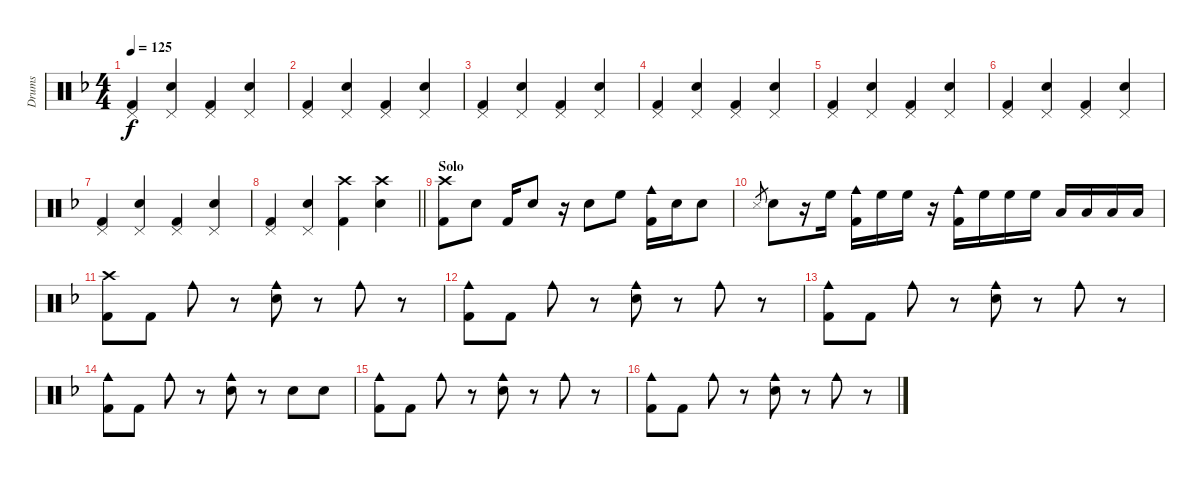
\track ("Drums" "Drums") {instrument percussion}
\staff {score}
\articulation defaults
\ts (4 4)
\tempo 125
\clef neutral
\ks f
("Pedal Hi-Hat (hit)" "Kick (hit) 2").4{dy f} ("Pedal Hi-Hat (hit)" "Electric Snare (hit)").4 ("Pedal Hi-Hat (hit)" "Kick (hit) 2").4 ("Pedal Hi-Hat (hit)" "Electric Snare (hit)").4 |
("Pedal Hi-Hat (hit)" "Kick (hit) 2").4 ("Pedal Hi-Hat (hit)" "Electric Snare (hit)").4 ("Pedal Hi-Hat (hit)" "Kick (hit) 2").4 ("Pedal Hi-Hat (hit)" "Electric Snare (hit)").4 |
("Pedal Hi-Hat (hit)" "Kick (hit) 2").4 ("Pedal Hi-Hat (hit)" "Electric Snare (hit)").4 ("Pedal Hi-Hat (hit)" "Kick (hit) 2").4 ("Pedal Hi-Hat (hit)" "Electric Snare (hit)").4 |
("Pedal Hi-Hat (hit)" "Kick (hit) 2").4 ("Pedal Hi-Hat (hit)" "Electric Snare (hit)").4 ("Pedal Hi-Hat (hit)" "Kick (hit) 2").4 ("Pedal Hi-Hat (hit)" "Electric Snare (hit)").4 |
("Pedal Hi-Hat (hit)" "Kick (hit) 2").4 ("Pedal Hi-Hat (hit)" "Electric Snare (hit)").4 ("Pedal Hi-Hat (hit)" "Kick (hit) 2").4 ("Pedal Hi-Hat (hit)" "Electric Snare (hit)").4 |
("Pedal Hi-Hat (hit)" "Kick (hit) 2").4 ("Pedal Hi-Hat (hit)" "Electric Snare (hit)").4 ("Pedal Hi-Hat (hit)" "Kick (hit) 2").4 ("Pedal Hi-Hat (hit)" "Electric Snare (hit)").4 |
("Pedal Hi-Hat (hit)" "Kick (hit) 2").4 ("Pedal Hi-Hat (hit)" "Electric Snare (hit)").4 ("Pedal Hi-Hat (hit)" "Kick (hit) 2").4 ("Pedal Hi-Hat (hit)" "Electric Snare (hit)").4 |
\barLineRight lightlight
("Pedal Hi-Hat (hit)" "Kick (hit) 2").4 ("Pedal Hi-Hat (hit)" "Electric Snare (hit)").4 ("Crash high (hit)" "Kick (hit) 2").4 ("Crash high (hit)" "Electric Snare (hit)").4 |
\section ("" "Solo")
("Crash high (hit)" "Kick (hit) 2").8 "Electric Snare (hit)".8 "Kick (hit) 2".16 "Electric Snare (hit)".8 r.16 "Electric Snare (hit)".8 "High Floor Tom (hit)".8 ("Cowbell medium (hit)" "Kick (hit) 2").16 "Electric Snare (hit)".16 "Electric Snare (hit)".8 |
"Snare (side stick) 3".8{gr} "Electric Snare (hit)".8 r.16 "High Floor Tom (hit)".16 ("Cowbell medium (hit)" "Kick (hit) 2").16 "High Floor Tom (hit)".16 "High Floor Tom (hit)".16 r.16 ("Cowbell medium (hit)" "Kick (hit) 2").16 "High Floor Tom (hit)".16 "High Floor Tom (hit)".16 "High Floor Tom (hit)".16 "Low Tom (hit)".16 "Low Tom (hit)".16 "Low Tom (hit)".16 "Low Tom (hit)".16 |
("Crash high (hit)" "Kick (hit) 2").8 "Kick (hit) 2".8 "Cowbell medium (hit)".8 r.8 ("Cowbell medium (hit)" "Electric Snare (hit)").8 r.8 "Cowbell medium (hit)".8 r.8 |
("Cowbell medium (hit)" "Kick (hit) 2").8 "Kick (hit) 2".8 "Cowbell medium (hit)".8 r.8 ("Cowbell medium (hit)" "Electric Snare (hit)").8 r.8 "Cowbell medium (hit)".8 r.8 |
("Cowbell medium (hit)" "Kick (hit) 2").8 "Kick (hit) 2".8 "Cowbell medium (hit)".8 r.8 ("Cowbell medium (hit)" "Electric Snare (hit)").8 r.8 "Cowbell medium (hit)".8 r.8 |
("Cowbell medium (hit)" "Kick (hit) 2").8 "Kick (hit) 2".8 "Cowbell medium (hit)".8 r.8 ("Cowbell medium (hit)" "Electric Snare (hit)").8 r.8 "Electric Snare (hit)".8 "Electric Snare (hit)".8 |
("Cowbell medium (hit)" "Kick (hit) 2").8 "Kick (hit) 2".8 "Cowbell medium (hit)".8 r.8 ("Cowbell medium (hit)" "Electric Snare (hit)").8 r.8 "Cowbell medium (hit)".8 r.8 |
("Cowbell medium (hit)" "Kick (hit) 2").8 "Kick (hit) 2".8 "Cowbell medium (hit)".8 r.8 ("Cowbell medium (hit)" "Electric Snare (hit)").8 r.8 "Cowbell medium (hit)".8 r.8
